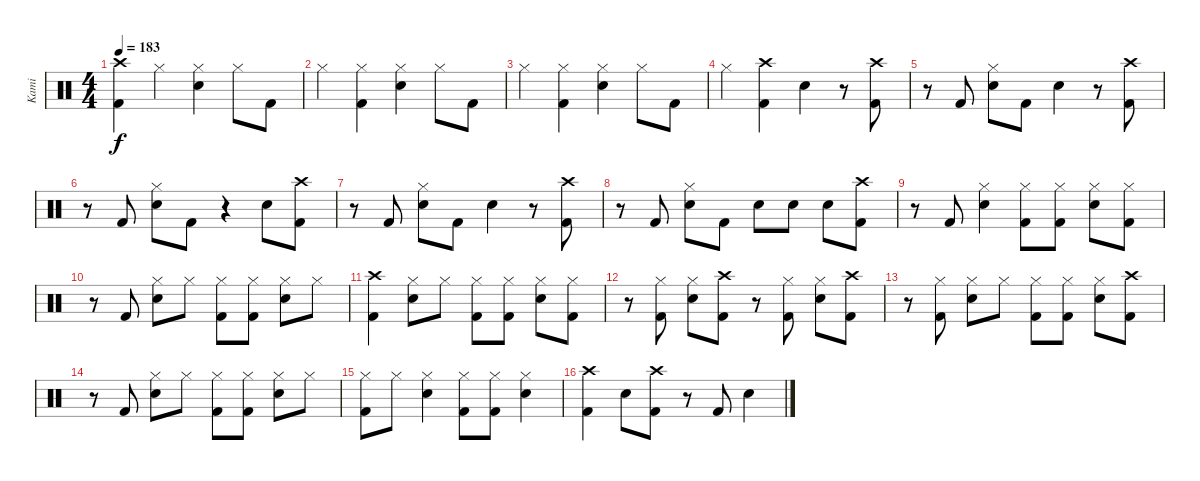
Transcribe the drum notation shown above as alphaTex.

\track ("Kami" "Kami") {instrument percussion}
\staff {score}
\articulation defaults
\ts (4 4)
\tempo 183
\clef neutral
\ks c
("Crash high (hit)" "Kick (hit) 2").4{dy f} "Hi-Hat (closed)".4 ("Hi-Hat (closed)" "Electric Snare (hit)").4 "Hi-Hat (closed)".8 "Kick (hit) 2".8 |
"Hi-Hat (closed)".4 ("Hi-Hat (closed)" "Kick (hit) 2").4 ("Hi-Hat (closed)" "Electric Snare (hit)").4 "Hi-Hat (closed)".8 "Kick (hit) 2".8 |
"Hi-Hat (closed)".4 ("Hi-Hat (closed)" "Kick (hit) 2").4 ("Hi-Hat (closed)" "Electric Snare (hit)").4 "Hi-Hat (closed)".8 "Kick (hit) 2".8 |
"Hi-Hat (closed)".4 ("Crash high (hit)" "Kick (hit) 2").4 "Electric Snare (hit)".4 r.8 ("Crash high (hit)" "Kick (hit) 2").8 |
r.8 "Kick (hit) 2".8 ("Hi-Hat (closed)" "Electric Snare (hit)").8 "Kick (hit) 2".8 "Electric Snare (hit)".4 r.8 ("Crash high (hit)" "Kick (hit) 2").8 |
r.8 "Kick (hit) 2".8 ("Hi-Hat (closed)" "Electric Snare (hit)").8 "Kick (hit) 2".8 r.4 "Electric Snare (hit)".8 ("Crash high (hit)" "Kick (hit) 2").8 |
r.8 "Kick (hit) 2".8 ("Hi-Hat (closed)" "Electric Snare (hit)").8 "Kick (hit) 2".8 "Electric Snare (hit)".4 r.8 ("Crash high (hit)" "Kick (hit) 2").8 |
r.8 "Kick (hit) 2".8 ("Hi-Hat (closed)" "Electric Snare (hit)").8 "Kick (hit) 2".8 "Electric Snare (hit)".8 "Electric Snare (hit)".8 "Electric Snare (hit)".8 ("Crash high (hit)" "Kick (hit) 2").8 |
r.8 "Kick (hit) 2".8 ("Hi-Hat (closed)" "Electric Snare (hit)").4 ("Hi-Hat (closed)" "Kick (hit) 2").8 ("Hi-Hat (closed)" "Kick (hit) 2").8 ("Hi-Hat (closed)" "Electric Snare (hit)").8 ("Hi-Hat (closed)" "Kick (hit) 2").8 |
r.8 "Kick (hit) 2".8 ("Hi-Hat (closed)" "Electric Snare (hit)").8 "Hi-Hat (closed)".8 ("Hi-Hat (closed)" "Kick (hit) 2").8 ("Hi-Hat (closed)" "Kick (hit) 2").8 ("Hi-Hat (closed)" "Electric Snare (hit)").8 "Hi-Hat (closed)".8 |
("Crash high (hit)" "Kick (hit) 2").4 ("Hi-Hat (closed)" "Electric Snare (hit)").8 "Hi-Hat (closed)".8 ("Hi-Hat (closed)" "Kick (hit) 2").8 ("Hi-Hat (closed)" "Kick (hit) 2").8 ("Hi-Hat (closed)" "Electric Snare (hit)").8 ("Hi-Hat (closed)" "Kick (hit) 2").8 |
r.8 ("Hi-Hat (closed)" "Kick (hit) 2").8 ("Hi-Hat (closed)" "Electric Snare (hit)").8 ("Crash high (hit)" "Kick (hit) 2").8 r.8 ("Hi-Hat (closed)" "Kick (hit) 2").8 ("Hi-Hat (closed)" "Electric Snare (hit)").8 ("Crash high (hit)" "Kick (hit) 2").8 |
r.8 ("Hi-Hat (closed)" "Kick (hit) 2").8 ("Hi-Hat (closed)" "Electric Snare (hit)").8 "Hi-Hat (closed)".8 ("Hi-Hat (closed)" "Kick (hit) 2").8 ("Hi-Hat (closed)" "Kick (hit) 2").8 ("Hi-Hat (closed)" "Electric Snare (hit)").8 ("Crash high (hit)" "Kick (hit) 2").8 |
r.8 "Kick (hit) 2".8 ("Hi-Hat (closed)" "Electric Snare (hit)").8 "Hi-Hat (closed)".8 ("Hi-Hat (closed)" "Kick (hit) 2").8 ("Hi-Hat (closed)" "Kick (hit) 2").8 ("Hi-Hat (closed)" "Electric Snare (hit)").8 "Hi-Hat (closed)".8 |
("Hi-Hat (closed)" "Kick (hit) 2").8 "Hi-Hat (closed)".8 ("Hi-Hat (closed)" "Electric Snare (hit)").4 ("Hi-Hat (closed)" "Kick (hit) 2").8 ("Hi-Hat (closed)" "Kick (hit) 2").8 ("Hi-Hat (closed)" "Electric Snare (hit)").4 |
("Crash high (hit)" "Kick (hit) 2").4 "Electric Snare (hit)".8 ("Crash high (hit)" "Kick (hit) 2").8 r.8 "Kick (hit) 2".8 "Electric Snare (hit)".4
